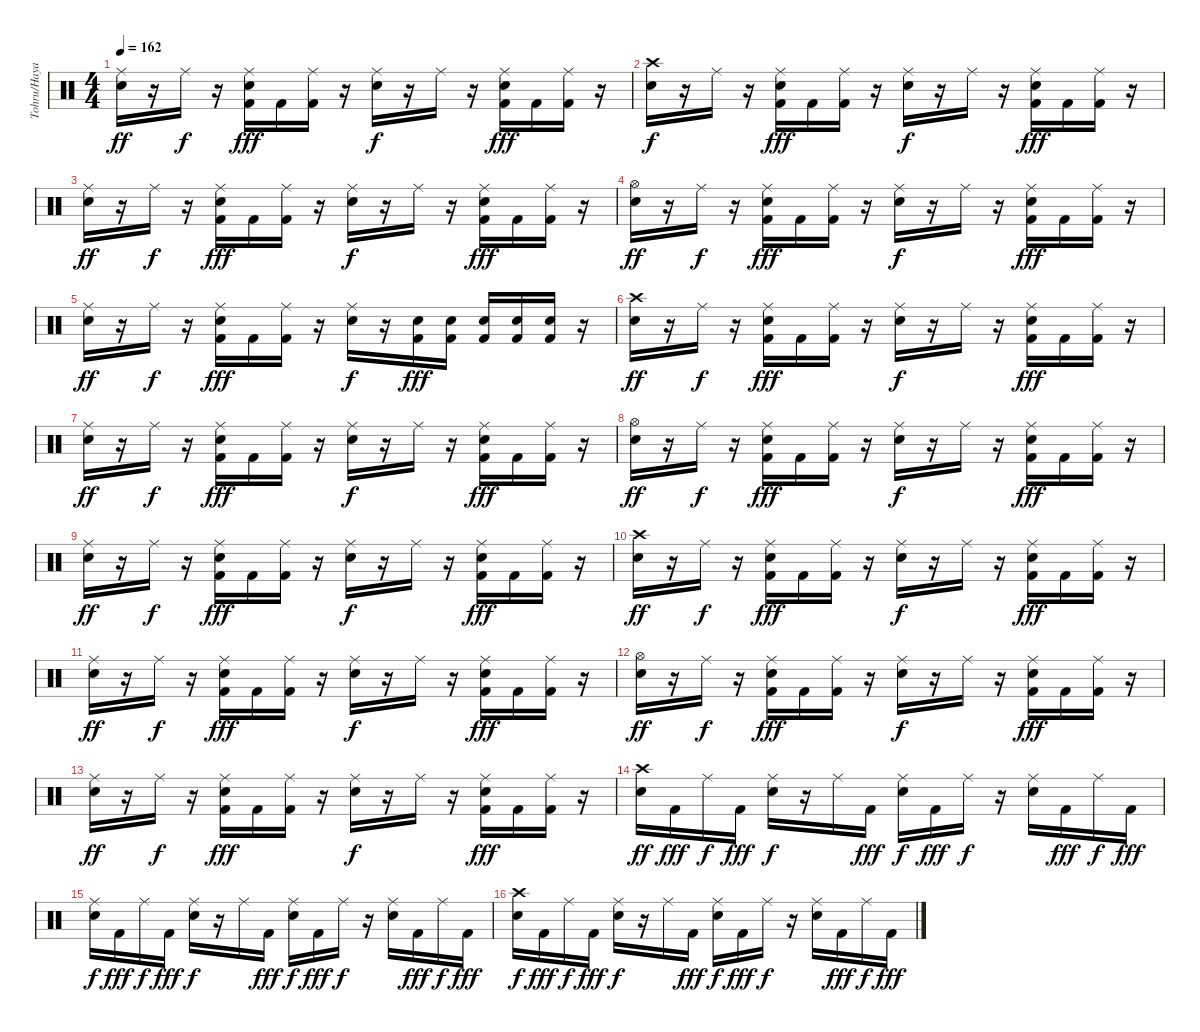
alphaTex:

\track ("Tohru/Hayato" "Tohru/Haya") {instrument percussion}
\staff {score}
\articulation defaults
\ts (4 4)
\tempo 162
\clef neutral
\ks c
("Ride (middle)" "Electric Snare (hit)").16{dy ff} r.16 "Ride (middle)".16{dy f} r.16 ("Ride (middle)" "Electric Snare (hit)" "Kick (hit) 2").16{dy fff} "Kick (hit) 2".16 ("Ride (middle)" "Kick (hit) 2").16 r.16 ("Ride (middle)" "Electric Snare (hit)").16{dy f} r.16 "Ride (middle)".16 r.16 ("Ride (middle)" "Electric Snare (hit)" "Kick (hit) 2").16{dy fff} "Kick (hit) 2".16 ("Ride (middle)" "Kick (hit) 2").16 r.16 |
("Crash high (hit)" "Electric Snare (hit)").16{dy f} r.16 "Ride (middle)".16 r.16 ("Ride (middle)" "Electric Snare (hit)" "Kick (hit) 2").16{dy fff} "Kick (hit) 2".16 ("Ride (middle)" "Kick (hit) 2").16 r.16 ("Ride (middle)" "Electric Snare (hit)").16{dy f} r.16 "Ride (middle)".16 r.16 ("Ride (middle)" "Electric Snare (hit)" "Kick (hit) 2").16{dy fff} "Kick (hit) 2".16 ("Ride (middle)" "Kick (hit) 2").16 r.16 |
("Ride (middle)" "Electric Snare (hit)").16{dy ff} r.16 "Ride (middle)".16{dy f} r.16 ("Ride (middle)" "Electric Snare (hit)" "Kick (hit) 2").16{dy fff} "Kick (hit) 2".16 ("Ride (middle)" "Kick (hit) 2").16 r.16 ("Ride (middle)" "Electric Snare (hit)").16{dy f} r.16 "Ride (middle)".16 r.16 ("Ride (middle)" "Electric Snare (hit)" "Kick (hit) 2").16{dy fff} "Kick (hit) 2".16 ("Ride (middle)" "Kick (hit) 2").16 r.16 |
("Hi-Hat (open)" "Electric Snare (hit)").16{dy ff} r.16 "Ride (middle)".16{dy f} r.16 ("Ride (middle)" "Electric Snare (hit)" "Kick (hit) 2").16{dy fff} "Kick (hit) 2".16 ("Ride (middle)" "Kick (hit) 2").16 r.16 ("Ride (middle)" "Electric Snare (hit)").16{dy f} r.16 "Ride (middle)".16 r.16 ("Ride (middle)" "Electric Snare (hit)" "Kick (hit) 2").16{dy fff} "Kick (hit) 2".16 ("Ride (middle)" "Kick (hit) 2").16 r.16 |
("Ride (middle)" "Electric Snare (hit)").16{dy ff} r.16 "Ride (middle)".16{dy f} r.16 ("Ride (middle)" "Electric Snare (hit)" "Kick (hit) 2").16{dy fff} "Kick (hit) 2".16 ("Ride (middle)" "Kick (hit) 2").16 r.16 ("Ride (middle)" "Electric Snare (hit)").16{dy f} r.16 ("Electric Snare (hit)" "Kick (hit) 2").16{dy fff} ("Electric Snare (hit)" "Kick (hit) 2").16 ("Electric Snare (hit)" "Kick (hit) 2").16 ("Electric Snare (hit)" "Kick (hit) 2").16 ("Electric Snare (hit)" "Kick (hit) 2").16 r.16 |
("Crash high (hit)" "Electric Snare (hit)").16{dy ff} r.16 "Ride (middle)".16{dy f} r.16 ("Ride (middle)" "Electric Snare (hit)" "Kick (hit) 2").16{dy fff} "Kick (hit) 2".16 ("Ride (middle)" "Kick (hit) 2").16 r.16 ("Ride (middle)" "Electric Snare (hit)").16{dy f} r.16 "Ride (middle)".16 r.16 ("Ride (middle)" "Electric Snare (hit)" "Kick (hit) 2").16{dy fff} "Kick (hit) 2".16 ("Ride (middle)" "Kick (hit) 2").16 r.16 |
("Ride (middle)" "Electric Snare (hit)").16{dy ff} r.16 "Ride (middle)".16{dy f} r.16 ("Ride (middle)" "Electric Snare (hit)" "Kick (hit) 2").16{dy fff} "Kick (hit) 2".16 ("Ride (middle)" "Kick (hit) 2").16 r.16 ("Ride (middle)" "Electric Snare (hit)").16{dy f} r.16 "Ride (middle)".16 r.16 ("Ride (middle)" "Electric Snare (hit)" "Kick (hit) 2").16{dy fff} "Kick (hit) 2".16 ("Ride (middle)" "Kick (hit) 2").16 r.16 |
("Hi-Hat (open)" "Electric Snare (hit)").16{dy ff} r.16 "Ride (middle)".16{dy f} r.16 ("Ride (middle)" "Electric Snare (hit)" "Kick (hit) 2").16{dy fff} "Kick (hit) 2".16 ("Ride (middle)" "Kick (hit) 2").16 r.16 ("Ride (middle)" "Electric Snare (hit)").16{dy f} r.16 "Ride (middle)".16 r.16 ("Ride (middle)" "Electric Snare (hit)" "Kick (hit) 2").16{dy fff} "Kick (hit) 2".16 ("Ride (middle)" "Kick (hit) 2").16 r.16 |
("Ride (middle)" "Electric Snare (hit)").16{dy ff} r.16 "Ride (middle)".16{dy f} r.16 ("Ride (middle)" "Electric Snare (hit)" "Kick (hit) 2").16{dy fff} "Kick (hit) 2".16 ("Ride (middle)" "Kick (hit) 2").16 r.16 ("Ride (middle)" "Electric Snare (hit)").16{dy f} r.16 "Ride (middle)".16 r.16 ("Ride (middle)" "Electric Snare (hit)" "Kick (hit) 2").16{dy fff} "Kick (hit) 2".16 ("Ride (middle)" "Kick (hit) 2").16 r.16 |
("Crash high (hit)" "Electric Snare (hit)").16{dy ff} r.16 "Ride (middle)".16{dy f} r.16 ("Ride (middle)" "Electric Snare (hit)" "Kick (hit) 2").16{dy fff} "Kick (hit) 2".16 ("Ride (middle)" "Kick (hit) 2").16 r.16 ("Ride (middle)" "Electric Snare (hit)").16{dy f} r.16 "Ride (middle)".16 r.16 ("Ride (middle)" "Electric Snare (hit)" "Kick (hit) 2").16{dy fff} "Kick (hit) 2".16 ("Ride (middle)" "Kick (hit) 2").16 r.16 |
("Ride (middle)" "Electric Snare (hit)").16{dy ff} r.16 "Ride (middle)".16{dy f} r.16 ("Ride (middle)" "Electric Snare (hit)" "Kick (hit) 2").16{dy fff} "Kick (hit) 2".16 ("Ride (middle)" "Kick (hit) 2").16 r.16 ("Ride (middle)" "Electric Snare (hit)").16{dy f} r.16 "Ride (middle)".16 r.16 ("Ride (middle)" "Electric Snare (hit)" "Kick (hit) 2").16{dy fff} "Kick (hit) 2".16 ("Ride (middle)" "Kick (hit) 2").16 r.16 |
("Hi-Hat (open)" "Electric Snare (hit)").16{dy ff} r.16 "Ride (middle)".16{dy f} r.16 ("Ride (middle)" "Electric Snare (hit)" "Kick (hit) 2").16{dy fff} "Kick (hit) 2".16 ("Ride (middle)" "Kick (hit) 2").16 r.16 ("Ride (middle)" "Electric Snare (hit)").16{dy f} r.16 "Ride (middle)".16 r.16 ("Ride (middle)" "Electric Snare (hit)" "Kick (hit) 2").16{dy fff} "Kick (hit) 2".16 ("Ride (middle)" "Kick (hit) 2").16 r.16 |
("Ride (middle)" "Electric Snare (hit)").16{dy ff} r.16 "Ride (middle)".16{dy f} r.16 ("Ride (middle)" "Electric Snare (hit)" "Kick (hit) 2").16{dy fff} "Kick (hit) 2".16 ("Ride (middle)" "Kick (hit) 2").16 r.16 ("Ride (middle)" "Electric Snare (hit)").16{dy f} r.16 "Ride (middle)".16 r.16 ("Ride (middle)" "Electric Snare (hit)" "Kick (hit) 2").16{dy fff} "Kick (hit) 2".16 ("Ride (middle)" "Kick (hit) 2").16 r.16 |
("Crash high (hit)" "Electric Snare (hit)").16{dy ff} "Kick (hit) 2".16{dy fff} "Ride (middle)".16{dy f} "Kick (hit) 2".16{dy fff} ("Ride (middle)" "Electric Snare (hit)").16{dy f} r.16 "Ride (middle)".16 "Kick (hit) 2".16{dy fff} ("Ride (middle)" "Electric Snare (hit)").16{dy f} "Kick (hit) 2".16{dy fff} "Ride (middle)".16{dy f} r.16 ("Ride (middle)" "Electric Snare (hit)").16 "Kick (hit) 2".16{dy fff} "Ride (middle)".16{dy f} "Kick (hit) 2".16{dy fff} |
("Ride (middle)" "Electric Snare (hit)").16{dy f} "Kick (hit) 2".16{dy fff} "Ride (middle)".16{dy f} "Kick (hit) 2".16{dy fff} ("Ride (middle)" "Electric Snare (hit)").16{dy f} r.16 "Ride (middle)".16 "Kick (hit) 2".16{dy fff} ("Ride (middle)" "Electric Snare (hit)").16{dy f} "Kick (hit) 2".16{dy fff} "Ride (middle)".16{dy f} r.16 ("Ride (middle)" "Electric Snare (hit)").16 "Kick (hit) 2".16{dy fff} "Ride (middle)".16{dy f} "Kick (hit) 2".16{dy fff} |
("Crash high (hit)" "Electric Snare (hit)").16{dy f} "Kick (hit) 2".16{dy fff} "Ride (middle)".16{dy f} "Kick (hit) 2".16{dy fff} ("Ride (middle)" "Electric Snare (hit)").16{dy f} r.16 "Ride (middle)".16 "Kick (hit) 2".16{dy fff} ("Ride (middle)" "Electric Snare (hit)").16{dy f} "Kick (hit) 2".16{dy fff} "Ride (middle)".16{dy f} r.16 ("Ride (middle)" "Electric Snare (hit)").16 "Kick (hit) 2".16{dy fff} "Ride (middle)".16{dy f} "Kick (hit) 2".16{dy fff}
